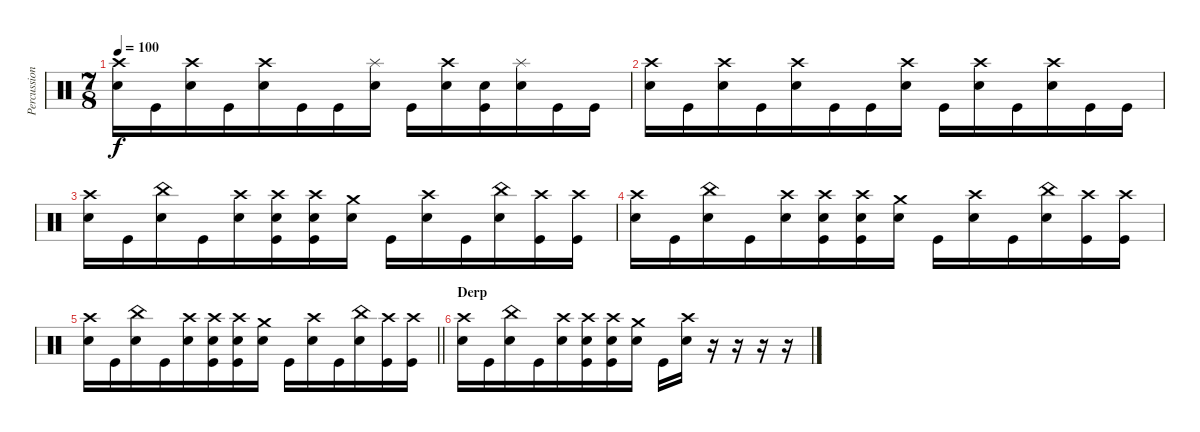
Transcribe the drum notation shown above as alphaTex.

\track ("Percussion" "Percussion") {instrument percussion}
\staff {score}
\articulation defaults
\ts (7 8)
\tempo 100
\clef neutral
\ks c
("Crash high (hit)" "Snare (hit) 2").16{dy f} "Kick (hit)".16 ("Crash high (hit)" "Snare (hit) 2").16 "Kick (hit)".16 ("Crash high (hit)" "Snare (hit) 2").16 "Kick (hit)".16 "Kick (hit)".16 ("Splash (hit)" "Snare (hit) 2").16 "Kick (hit)".16 ("Crash high (hit)" "Snare (hit) 2").16 ("Snare (hit)" "Kick (hit)").16 ("Splash (hit)" "Snare (hit) 2").16 "Kick (hit)".16 "Kick (hit)".16 |
("Crash high (hit)" "Snare (hit) 2").16 "Kick (hit)".16 ("Crash high (hit)" "Snare (hit) 2").16 "Kick (hit)".16 ("Crash high (hit)" "Snare (hit) 2").16 "Kick (hit)".16 "Kick (hit)".16 ("Crash high (hit)" "Snare (hit) 2").16 "Kick (hit)".16 ("Crash high (hit)" "Snare (hit) 2").16 "Kick (hit)".16 ("Crash high (hit)" "Snare (hit) 2").16 "Kick (hit)".16 "Kick (hit)".16 |
("Crash high (hit)" "Snare (hit) 2").16 "Kick (hit)".16 ("China (hit)" "Snare (hit) 2").16 "Kick (hit)".16 ("Crash high (hit)" "Snare (hit) 2").16 ("Crash high (hit)" "Snare (hit) 2" "Kick (hit)").16 ("Crash high (hit)" "Snare (hit) 2" "Kick (hit)").16 ("Crash medium (hit)" "Snare (hit) 2").16 "Kick (hit)".16 ("Crash high (hit)" "Snare (hit) 2").16 "Kick (hit)".16 ("China (hit)" "Snare (hit) 2").16 ("Crash high (hit)" "Kick (hit)").16 ("Crash high (hit)" "Kick (hit)").16 |
("Crash high (hit)" "Snare (hit) 2").16 "Kick (hit)".16 ("China (hit)" "Snare (hit) 2").16 "Kick (hit)".16 ("Crash high (hit)" "Snare (hit) 2").16 ("Crash high (hit)" "Snare (hit) 2" "Kick (hit)").16 ("Crash high (hit)" "Snare (hit) 2" "Kick (hit)").16 ("Crash medium (hit)" "Snare (hit) 2").16 "Kick (hit)".16 ("Crash high (hit)" "Snare (hit) 2").16 "Kick (hit)".16 ("China (hit)" "Snare (hit) 2").16 ("Crash high (hit)" "Kick (hit)").16 ("Crash high (hit)" "Kick (hit)").16 |
\barLineRight lightlight
("Crash high (hit)" "Snare (hit) 2").16 "Kick (hit)".16 ("China (hit)" "Snare (hit) 2").16 "Kick (hit)".16 ("Crash high (hit)" "Snare (hit) 2").16 ("Crash high (hit)" "Snare (hit) 2" "Kick (hit)").16 ("Crash high (hit)" "Snare (hit) 2" "Kick (hit)").16 ("Crash medium (hit)" "Snare (hit) 2").16 "Kick (hit)".16 ("Crash high (hit)" "Snare (hit) 2").16 "Kick (hit)".16 ("China (hit)" "Snare (hit) 2").16 ("Crash high (hit)" "Kick (hit)").16 ("Crash high (hit)" "Kick (hit)").16 |
\section ("" "Derp")
("Crash high (hit)" "Snare (hit) 2").16 "Kick (hit)".16 ("China (hit)" "Snare (hit) 2").16 "Kick (hit)".16 ("Crash high (hit)" "Snare (hit) 2").16 ("Crash high (hit)" "Snare (hit) 2" "Kick (hit)").16 ("Crash high (hit)" "Snare (hit) 2" "Kick (hit)").16 ("Crash medium (hit)" "Snare (hit) 2").16 "Kick (hit)".16 ("Crash high (hit)" "Snare (hit) 2").16 r.16 r.16 r.16 r.16
